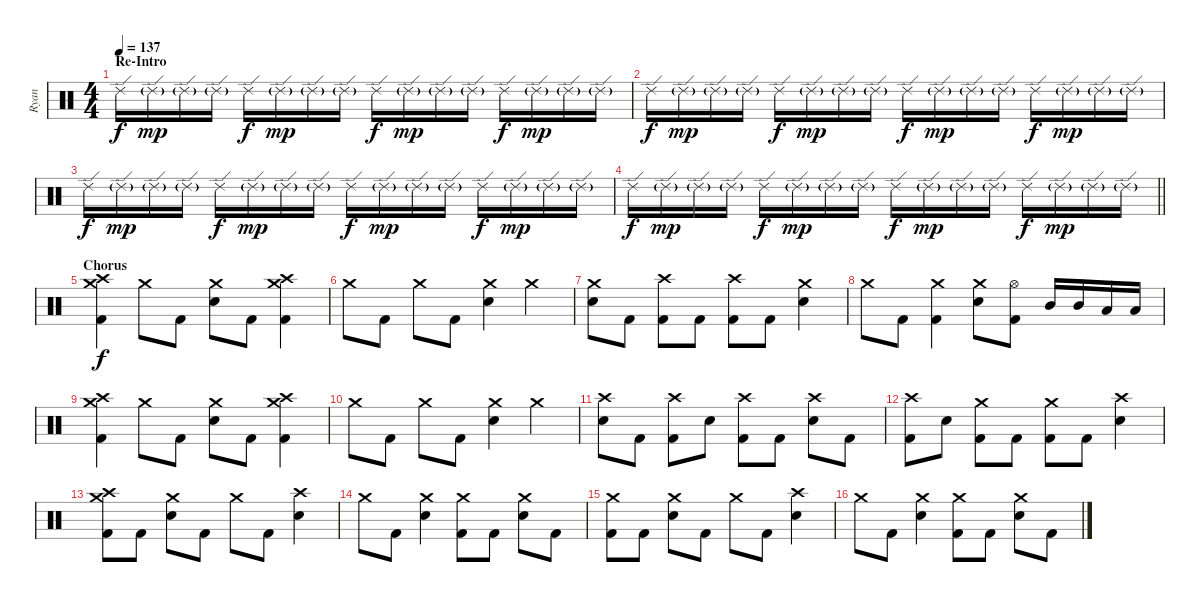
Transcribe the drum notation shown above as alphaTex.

\track ("Ryan" "Ryan") {instrument percussion}
\staff {score}
\articulation defaults
\ts (4 4)
\section ("" "Re-Intro")
\tempo 137
\clef neutral
\ks c "Ride (edge) 2".16{dy f} "Ride (edge) 2"{g}.16{dy mp} "Ride (edge) 2"{g}.16 "Ride (edge) 2"{g}.16 "Ride (edge) 2".16{dy f} "Ride (edge) 2"{g}.16{dy mp} "Ride (edge) 2"{g}.16 "Ride (edge) 2"{g}.16 "Ride (edge) 2".16{dy f} "Ride (edge) 2"{g}.16{dy mp} "Ride (edge) 2"{g}.16 "Ride (edge) 2"{g}.16 "Ride (edge) 2".16{dy f} "Ride (edge) 2"{g}.16{dy mp} "Ride (edge) 2"{g}.16 "Ride (edge) 2"{g}.16
|
"Ride (edge) 2".16{dy f} "Ride (edge) 2"{g}.16{dy mp} "Ride (edge) 2"{g}.16 "Ride (edge) 2"{g}.16 "Ride (edge) 2".16{dy f} "Ride (edge) 2"{g}.16{dy mp} "Ride (edge) 2"{g}.16 "Ride (edge) 2"{g}.16 "Ride (edge) 2".16{dy f} "Ride (edge) 2"{g}.16{dy mp} "Ride (edge) 2"{g}.16 "Ride (edge) 2"{g}.16 "Ride (edge) 2".16{dy f} "Ride (edge) 2"{g}.16{dy mp} "Ride (edge) 2"{g}.16 "Ride (edge) 2"{g}.16 |
"Ride (edge) 2".16{dy f} "Ride (edge) 2"{g}.16{dy mp} "Ride (edge) 2"{g}.16 "Ride (edge) 2"{g}.16 "Ride (edge) 2".16{dy f} "Ride (edge) 2"{g}.16{dy mp} "Ride (edge) 2"{g}.16 "Ride (edge) 2"{g}.16 "Ride (edge) 2".16{dy f} "Ride (edge) 2"{g}.16{dy mp} "Ride (edge) 2"{g}.16 "Ride (edge) 2"{g}.16 "Ride (edge) 2".16{dy f} "Ride (edge) 2"{g}.16{dy mp} "Ride (edge) 2"{g}.16 "Ride (edge) 2"{g}.16 |
\barLineRight lightlight "Ride (edge) 2".16{dy f} "Ride (edge) 2"{g}.16{dy mp} "Ride (edge) 2"{g}.16 "Ride (edge) 2"{g}.16 "Ride (edge) 2".16{dy f} "Ride (edge) 2"{g}.16{dy mp} "Ride (edge) 2"{g}.16 "Ride (edge) 2"{g}.16 "Ride (edge) 2".16{dy f} "Ride (edge) 2"{g}.16{dy mp} "Ride (edge) 2"{g}.16 "Ride (edge) 2"{g}.16 "Ride (edge) 2".16{dy f} "Ride (edge) 2"{g}.16{dy mp} "Ride (edge) 2"{g}.16 "Ride (edge) 2"{g}.16
|
\section ("" "Chorus")
("Crash medium (hit)" "Crash high (hit)" "Kick (hit) 2").4{dy f} "Crash medium (hit)".8 "Kick (hit) 2".8 ("Crash medium (hit)" "Electric Snare (hit)").8 "Kick (hit) 2".8 ("Crash medium (hit)" "Crash high (hit)" "Kick (hit) 2").4 |
"Crash medium (hit)".8 "Kick (hit) 2".8 "Crash medium (hit)".8 "Kick (hit) 2".8 ("Crash medium (hit)" "Electric Snare (hit)").4 "Crash medium (hit)".4 |
("Crash medium (hit)" "Electric Snare (hit)").8 "Kick (hit) 2".8 ("Crash high (hit)" "Kick (hit) 2").8 "Kick (hit) 2".8 ("Crash high (hit)" "Kick (hit) 2").8 "Kick (hit) 2".8 ("Crash medium (hit)" "Electric Snare (hit)").4 |
"Crash medium (hit)".8 "Kick (hit) 2".8 ("Crash medium (hit)" "Kick (hit) 2").4 ("Crash medium (hit)" "Electric Snare (hit)").8 ("Hi-Hat (open)" "Kick (hit) 2").8 "Mid Tom (hit)".16 "Mid Tom (hit)".16 "Low Tom (hit)".16 "Low Tom (hit)".16 |
("Crash medium (hit)" "Crash high (hit)" "Kick (hit) 2").4 "Crash medium (hit)".8 "Kick (hit) 2".8 ("Crash medium (hit)" "Electric Snare (hit)").8 "Kick (hit) 2".8 ("Crash medium (hit)" "Crash high (hit)" "Kick (hit) 2").4 |
"Crash medium (hit)".8 "Kick (hit) 2".8 "Crash medium (hit)".8 "Kick (hit) 2".8 ("Crash medium (hit)" "Electric Snare (hit)").4 "Crash medium (hit)".4 |
("Crash high (hit)" "Electric Snare (hit)").8 "Kick (hit) 2".8 ("Crash high (hit)" "Kick (hit) 2").8 "Electric Snare (hit)".8 ("Crash high (hit)" "Kick (hit) 2").8 "Kick (hit) 2".8 ("Crash high (hit)" "Electric Snare (hit)").8 "Kick (hit) 2".8 |
("Crash high (hit)" "Kick (hit) 2").8 "Electric Snare (hit)".8 ("Crash medium (hit)" "Kick (hit) 2").8 "Kick (hit) 2".8 ("Crash medium (hit)" "Kick (hit) 2").8 "Kick (hit) 2".8 ("Crash high (hit)" "Electric Snare (hit)").4 |
("Crash medium (hit)" "Crash high (hit)" "Kick (hit) 2").8 "Kick (hit) 2".8 ("Crash medium (hit)" "Electric Snare (hit)").8 "Kick (hit) 2".8 "Crash medium (hit)".8 "Kick (hit) 2".8 ("Crash high (hit)" "Electric Snare (hit)").4 |
"Crash medium (hit)".8 "Kick (hit) 2".8 ("Crash medium (hit)" "Electric Snare (hit)").4 ("Crash medium (hit)" "Kick (hit) 2").8 "Kick (hit) 2".8 ("Crash medium (hit)" "Electric Snare (hit)").8 "Kick (hit) 2".8 |
("Crash medium (hit)" "Kick (hit) 2").8 "Kick (hit) 2".8 ("Crash medium (hit)" "Electric Snare (hit)").8 "Kick (hit) 2".8 "Crash medium (hit)".8 "Kick (hit) 2".8 ("Crash high (hit)" "Electric Snare (hit)").4 |
"Crash medium (hit)".8 "Kick (hit) 2".8 ("Crash medium (hit)" "Electric Snare (hit)").4 ("Crash medium (hit)" "Kick (hit) 2").8 "Kick (hit) 2".8 ("Crash medium (hit)" "Electric Snare (hit)").8 "Kick (hit) 2".8
